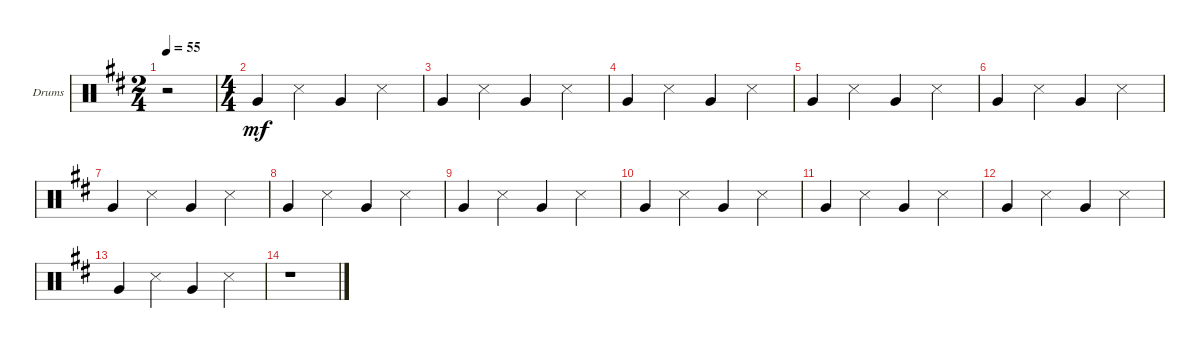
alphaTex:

\defaultSystemsLayout 4
\bracketExtendMode groupsimilarinstruments
\firstSystemTrackNameOrientation horizontal
\otherSystemsTrackNameOrientation horizontal
\track ("Drumkit" "Drums") {instrument percussion}
\staff {score}
\articulation defaults
\ts (2 4)
\tempo 55
\clef neutral
\ks d
r.2{dy mf} |
\ts (4 4)
"Very Low Tom (hit)".4 "Snare (side stick) 3".4 "Very Low Tom (hit)".4 "Snare (side stick) 3".4 |
"Very Low Tom (hit)".4 "Snare (side stick) 3".4 "Very Low Tom (hit)".4 "Snare (side stick) 3".4 |
"Very Low Tom (hit)".4 "Snare (side stick) 3".4 "Very Low Tom (hit)".4 "Snare (side stick) 3".4 |
"Very Low Tom (hit)".4 "Snare (side stick) 3".4 "Very Low Tom (hit)".4 "Snare (side stick) 3".4 |
"Very Low Tom (hit)".4 "Snare (side stick) 3".4 "Very Low Tom (hit)".4 "Snare (side stick) 3".4 |
"Very Low Tom (hit)".4 "Snare (side stick) 3".4 "Very Low Tom (hit)".4 "Snare (side stick) 3".4 |
"Very Low Tom (hit)".4 "Snare (side stick) 3".4 "Very Low Tom (hit)".4 "Snare (side stick) 3".4 |
"Very Low Tom (hit)".4 "Snare (side stick) 3".4 "Very Low Tom (hit)".4 "Snare (side stick) 3".4 |
"Very Low Tom (hit)".4 "Snare (side stick) 3".4 "Very Low Tom (hit)".4 "Snare (side stick) 3".4 |
"Very Low Tom (hit)".4 "Snare (side stick) 3".4 "Very Low Tom (hit)".4 "Snare (side stick) 3".4 |
"Very Low Tom (hit)".4 "Snare (side stick) 3".4 "Very Low Tom (hit)".4 "Snare (side stick) 3".4 |
"Very Low Tom (hit)".4 "Snare (side stick) 3".4 "Very Low Tom (hit)".4 "Snare (side stick) 3".4 |
r.1
